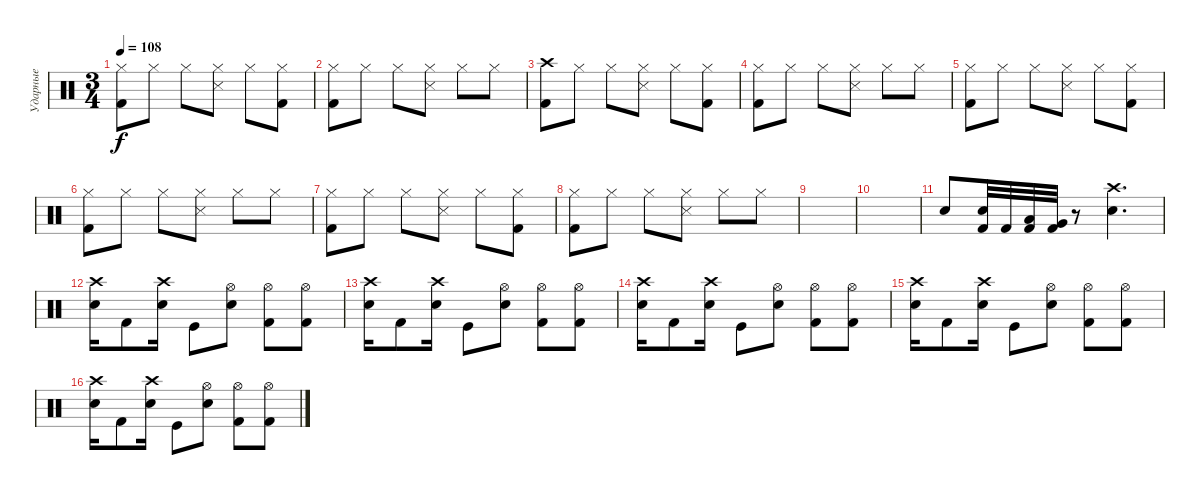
\track ("Ударные" "Ударные") {instrument percussion}
\staff {score}
\articulation defaults
\ts (3 4)
\tempo 108
\clef neutral
\ks c
("Hi-Hat (closed)" "Kick (hit) 2").8{dy f} "Hi-Hat (closed)".8 "Hi-Hat (closed)".8 ("Hi-Hat (closed)" "Snare (side stick) 3").8 "Hi-Hat (closed)".8 ("Hi-Hat (closed)" "Kick (hit) 2").8 |
("Hi-Hat (closed)" "Kick (hit) 2").8 "Hi-Hat (closed)".8 "Hi-Hat (closed)".8 ("Hi-Hat (closed)" "Snare (side stick) 3").8 "Hi-Hat (closed)".8 "Hi-Hat (closed)".8 |
("Crash high (hit)" "Kick (hit) 2").8 "Hi-Hat (closed)".8 "Hi-Hat (closed)".8 ("Hi-Hat (closed)" "Snare (side stick) 3").8 "Hi-Hat (closed)".8 ("Hi-Hat (closed)" "Kick (hit) 2").8 |
("Hi-Hat (closed)" "Kick (hit) 2").8 "Hi-Hat (closed)".8 "Hi-Hat (closed)".8 ("Hi-Hat (closed)" "Snare (side stick) 3").8 "Hi-Hat (closed)".8 "Hi-Hat (closed)".8 |
("Hi-Hat (closed)" "Kick (hit) 2").8 "Hi-Hat (closed)".8 "Hi-Hat (closed)".8 ("Hi-Hat (closed)" "Snare (side stick) 3").8 "Hi-Hat (closed)".8 ("Hi-Hat (closed)" "Kick (hit) 2").8 |
("Hi-Hat (closed)" "Kick (hit) 2").8 "Hi-Hat (closed)".8 "Hi-Hat (closed)".8 ("Hi-Hat (closed)" "Snare (side stick) 3").8 "Hi-Hat (closed)".8 "Hi-Hat (closed)".8 |
("Hi-Hat (closed)" "Kick (hit) 2").8 "Hi-Hat (closed)".8 "Hi-Hat (closed)".8 ("Hi-Hat (closed)" "Snare (side stick) 3").8 "Hi-Hat (closed)".8 ("Hi-Hat (closed)" "Kick (hit) 2").8 |
("Hi-Hat (closed)" "Kick (hit) 2").8 "Hi-Hat (closed)".8 "Hi-Hat (closed)".8 ("Hi-Hat (closed)" "Snare (side stick) 3").8 "Hi-Hat (closed)".8 "Hi-Hat (closed)".8 |
|
|
"Snare (hit) 2".8 ("Kick (hit) 2" "Snare (hit) 2").32 "Kick (hit) 2".32 ("Kick (hit) 2" "Low Tom (hit)").32 ("Kick (hit) 2" "Very Low Tom (hit)").32 r.8 ("Snare (hit) 2" "Crash high (hit)").4{d} |
("Snare (hit) 2" "Crash high (hit)").16 "Kick (hit) 2".8 ("Snare (hit) 2" "Crash high (hit)").16 "Kick (hit)".8 ("Snare (hit) 2" "Hi-Hat (open)").8 ("Kick (hit) 2" "Hi-Hat (open)").8 ("Kick (hit) 2" "Hi-Hat (open)").8 |
("Snare (hit) 2" "Crash high (hit)").16 "Kick (hit) 2".8 ("Snare (hit) 2" "Crash high (hit)").16 "Kick (hit)".8 ("Snare (hit) 2" "Hi-Hat (open)").8 ("Kick (hit) 2" "Hi-Hat (open)").8 ("Kick (hit) 2" "Hi-Hat (open)").8 |
("Snare (hit) 2" "Crash high (hit)").16 "Kick (hit) 2".8 ("Snare (hit) 2" "Crash high (hit)").16 "Kick (hit)".8 ("Snare (hit) 2" "Hi-Hat (open)").8 ("Kick (hit) 2" "Hi-Hat (open)").8 ("Kick (hit) 2" "Hi-Hat (open)").8 |
("Snare (hit) 2" "Crash high (hit)").16 "Kick (hit) 2".8 ("Snare (hit) 2" "Crash high (hit)").16 "Kick (hit)".8 ("Snare (hit) 2" "Hi-Hat (open)").8 ("Kick (hit) 2" "Hi-Hat (open)").8 ("Kick (hit) 2" "Hi-Hat (open)").8 |
("Snare (hit) 2" "Crash high (hit)").16 "Kick (hit) 2".8 ("Snare (hit) 2" "Crash high (hit)").16 "Kick (hit)".8 ("Snare (hit) 2" "Hi-Hat (open)").8 ("Kick (hit) 2" "Hi-Hat (open)").8 ("Kick (hit) 2" "Hi-Hat (open)").8
